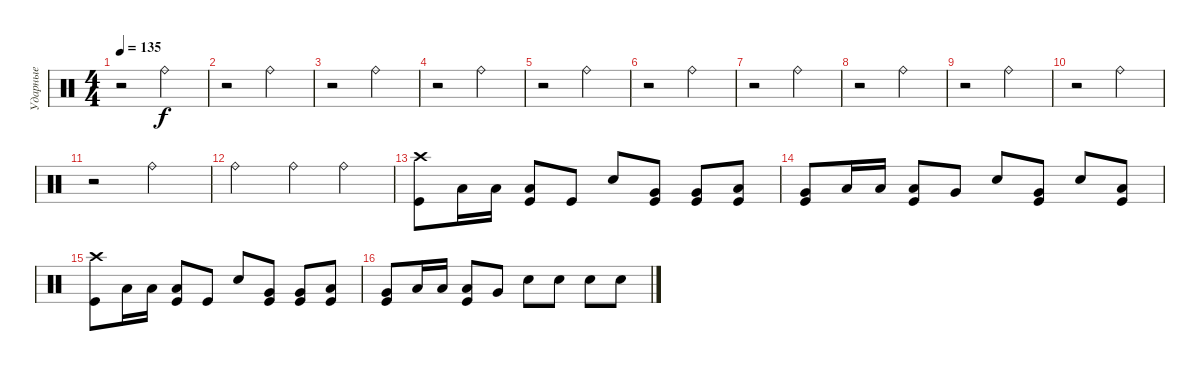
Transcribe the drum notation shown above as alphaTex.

\track ("Ударные" "Ударные") {instrument percussion}
\staff {score}
\articulation defaults
\ts (4 4)
\tempo 135
\clef neutral
\ks c
r.2{dy f} "Ride (bell)".2 |
r.2 "Ride (bell)".2 |
r.2 "Ride (bell)".2 |
r.2 "Ride (bell)".2 |
r.2 "Ride (bell)".2 |
r.2 "Ride (bell)".2 |
r.2 "Ride (bell)".2 |
r.2 "Ride (bell)".2 |
r.2 "Ride (bell)".2 |
r.2 "Ride (bell)".2 |
r.2 "Ride (bell)".2 |
"Ride (bell)".2 "Ride (bell)".4 "Ride (bell)".4 |
("Crash high (hit)" "Kick (hit)").8 "Low Tom (hit)".16 "Low Tom (hit)".16 ("Low Tom (hit)" "Kick (hit)").8 "Kick (hit)".8 "Electric Snare (hit)".8 ("Very Low Tom (hit)" "Kick (hit)").8 ("Very Low Tom (hit)" "Kick (hit)").8 ("Low Tom (hit)" "Kick (hit)").8 |
("Very Low Tom (hit)" "Kick (hit)").8 "Low Tom (hit)".16 "Low Tom (hit)".16 ("Low Tom (hit)" "Kick (hit)").8 "Very Low Tom (hit)".8 "Electric Snare (hit)".8 ("Very Low Tom (hit)" "Kick (hit)").8 "Electric Snare (hit)".8 ("Low Tom (hit)" "Kick (hit)").8 |
("Crash high (hit)" "Kick (hit)").8 "Low Tom (hit)".16 "Low Tom (hit)".16 ("Low Tom (hit)" "Kick (hit)").8 "Kick (hit)".8 "Electric Snare (hit)".8 ("Very Low Tom (hit)" "Kick (hit)").8 ("Very Low Tom (hit)" "Kick (hit)").8 ("Low Tom (hit)" "Kick (hit)").8 |
("Very Low Tom (hit)" "Kick (hit)").8 "Low Tom (hit)".16 "Low Tom (hit)".16 ("Low Tom (hit)" "Kick (hit)").8 "Very Low Tom (hit)".8 "Electric Snare (hit)".8 "Electric Snare (hit)".8 "Electric Snare (hit)".8 "Electric Snare (hit)".8
